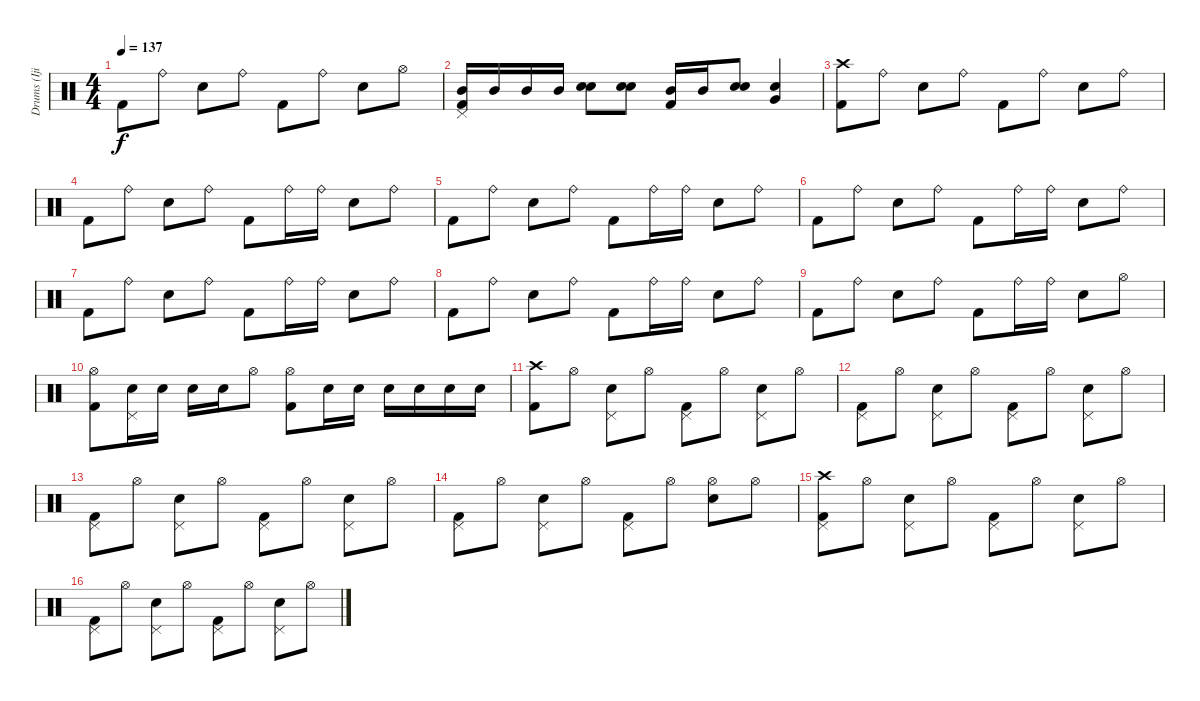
\track ("Drums (Ijichi)" "Drums (Iji") {instrument percussion}
\staff {score}
\articulation defaults
\ts (4 4)
\tempo 137
\clef neutral
\ks c "Kick (hit) 2".8{dy f} "Ride (bell)".8 "Snare (hit) 2".8 "Ride (bell)".8 "Kick (hit) 2".8 "Ride (bell)".8 "Snare (hit) 2".8 "Hi-Hat (open)".8
|
("Pedal Hi-Hat (hit)" "Mid Tom (hit)" "Kick (hit) 2").16 "Mid Tom (hit)".16 "Mid Tom (hit)".16 "Mid Tom (hit)".16 ("Snare (hit) 2" "Snare (hit) 2").8 ("Snare (hit) 2" "Snare (hit) 2").8 ("Mid Tom (hit)" "Kick (hit) 2").16 "Mid Tom (hit)".16 ("Snare (hit) 2" "Snare (hit) 2").8 ("Snare (hit) 2" "Very Low Tom (hit)").4 |
("Crash high (hit)" "Kick (hit) 2").8 "Ride (bell)".8 "Snare (hit) 2".8 "Ride (bell)".8 "Kick (hit) 2".8 "Ride (bell)".8 "Snare (hit) 2".8 "Ride (bell)".8 |
"Kick (hit) 2".8 "Ride (bell)".8 "Snare (hit) 2".8 "Ride (bell)".8 "Kick (hit) 2".8 "Ride (bell)".16 "Ride (bell)".16 "Snare (hit) 2".8 "Ride (bell)".8 |
"Kick (hit) 2".8 "Ride (bell)".8 "Snare (hit) 2".8 "Ride (bell)".8 "Kick (hit) 2".8 "Ride (bell)".16 "Ride (bell)".16 "Snare (hit) 2".8 "Ride (bell)".8 |
"Kick (hit) 2".8 "Ride (bell)".8 "Snare (hit) 2".8 "Ride (bell)".8 "Kick (hit) 2".8 "Ride (bell)".16 "Ride (bell)".16 "Snare (hit) 2".8 "Ride (bell)".8 |
"Kick (hit) 2".8 "Ride (bell)".8 "Snare (hit) 2".8 "Ride (bell)".8 "Kick (hit) 2".8 "Ride (bell)".16 "Ride (bell)".16 "Snare (hit) 2".8 "Ride (bell)".8 |
"Kick (hit) 2".8 "Ride (bell)".8 "Snare (hit) 2".8 "Ride (bell)".8 "Kick (hit) 2".8 "Ride (bell)".16 "Ride (bell)".16 "Snare (hit) 2".8 "Ride (bell)".8 |
"Kick (hit) 2".8 "Ride (bell)".8 "Snare (hit) 2".8 "Ride (bell)".8 "Kick (hit) 2".8 "Ride (bell)".16 "Ride (bell)".16 "Snare (hit) 2".8 "Hi-Hat (open)".8 |
("Hi-Hat (open)" "Kick (hit) 2").8 ("Pedal Hi-Hat (hit)" "Snare (hit) 2").16 "Snare (hit) 2".16 "Snare (hit) 2".16 "Snare (hit) 2".16 "Hi-Hat (open)".8 ("Hi-Hat (open)" "Kick (hit) 2").8 "Snare (hit) 2".16 "Snare (hit) 2".16 "Snare (hit) 2".16 "Snare (hit) 2".16 "Snare (hit) 2".16 "Snare (hit) 2".16 |
("Crash high (hit)" "Kick (hit) 2").8 "Hi-Hat (open)".8 ("Pedal Hi-Hat (hit)" "Snare (hit) 2").8 "Hi-Hat (open)".8 ("Pedal Hi-Hat (hit)" "Kick (hit) 2").8 "Hi-Hat (open)".8 ("Pedal Hi-Hat (hit)" "Snare (hit) 2").8 "Hi-Hat (open)".8 |
("Pedal Hi-Hat (hit)" "Kick (hit) 2").8 "Hi-Hat (open)".8 ("Pedal Hi-Hat (hit)" "Snare (hit) 2").8 "Hi-Hat (open)".8 ("Pedal Hi-Hat (hit)" "Kick (hit) 2").8 "Hi-Hat (open)".8 ("Pedal Hi-Hat (hit)" "Snare (hit) 2").8 "Hi-Hat (open)".8 |
("Pedal Hi-Hat (hit)" "Kick (hit) 2").8 "Hi-Hat (open)".8 ("Pedal Hi-Hat (hit)" "Snare (hit) 2").8 "Hi-Hat (open)".8 ("Pedal Hi-Hat (hit)" "Kick (hit) 2").8 "Hi-Hat (open)".8 ("Pedal Hi-Hat (hit)" "Snare (hit) 2").8 "Hi-Hat (open)".8 |
("Pedal Hi-Hat (hit)" "Kick (hit) 2").8 "Hi-Hat (open)".8 ("Pedal Hi-Hat (hit)" "Snare (hit) 2").8 "Hi-Hat (open)".8 ("Pedal Hi-Hat (hit)" "Kick (hit) 2").8 "Hi-Hat (open)".8 ("Hi-Hat (open)" "Snare (hit) 2").8 "Hi-Hat (open)".8 |
("Crash high (hit)" "Pedal Hi-Hat (hit)" "Kick (hit) 2").8 "Hi-Hat (open)".8 ("Pedal Hi-Hat (hit)" "Snare (hit) 2").8 "Hi-Hat (open)".8 ("Pedal Hi-Hat (hit)" "Kick (hit) 2").8 "Hi-Hat (open)".8 ("Pedal Hi-Hat (hit)" "Snare (hit) 2").8 "Hi-Hat (open)".8 |
("Pedal Hi-Hat (hit)" "Kick (hit) 2").8 "Hi-Hat (open)".8 ("Pedal Hi-Hat (hit)" "Snare (hit) 2").8 "Hi-Hat (open)".8 ("Pedal Hi-Hat (hit)" "Kick (hit) 2").8 "Hi-Hat (open)".8 ("Pedal Hi-Hat (hit)" "Snare (hit) 2").8 "Hi-Hat (open)".8
